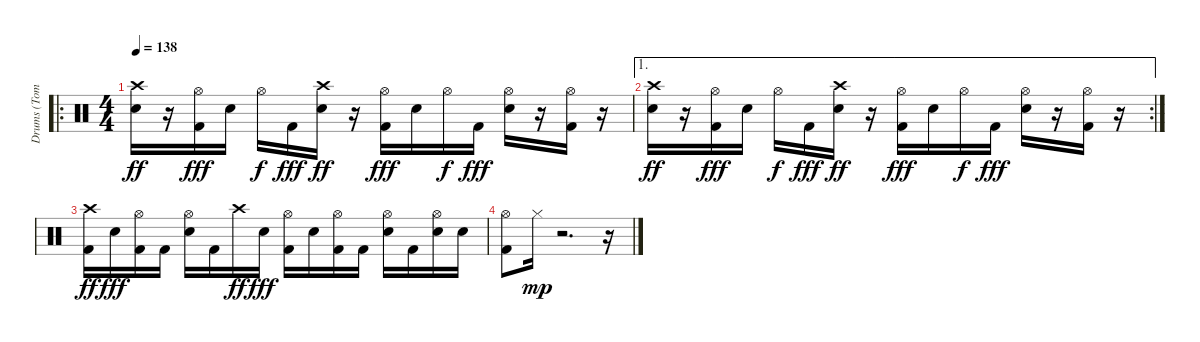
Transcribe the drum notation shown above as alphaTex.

\track ("Drums (Tommy Decker)" "Drums (Tom") {instrument percussion}
\staff {score}
\articulation defaults
\ro
\ts (4 4)
\tempo 138
\clef neutral
\ks c
("Snare (hit) 2" "Crash high (hit)").16{dy ff} r.16 ("Kick (hit) 2" "Hi-Hat (open)").16{dy fff} "Snare (hit) 2".16 "Hi-Hat (open)".16{dy f} "Kick (hit) 2".16{dy fff} ("Snare (hit) 2" "Crash high (hit)").16{dy ff} r.16 ("Kick (hit) 2" "Hi-Hat (open)").16{dy fff} "Snare (hit) 2".16 "Hi-Hat (open)".16{dy f} "Kick (hit) 2".16{dy fff} ("Snare (hit) 2" "Hi-Hat (open)").16 r.16 ("Kick (hit) 2" "Hi-Hat (open)").16 r.16 |
\ae 1
\rc 2
("Snare (hit) 2" "Crash high (hit)").16{dy ff} r.16 ("Kick (hit) 2" "Hi-Hat (open)").16{dy fff} "Snare (hit) 2".16 "Hi-Hat (open)".16{dy f} "Kick (hit) 2".16{dy fff} ("Snare (hit) 2" "Crash high (hit)").16{dy ff} r.16 ("Kick (hit) 2" "Hi-Hat (open)").16{dy fff} "Snare (hit) 2".16 "Hi-Hat (open)".16{dy f} "Kick (hit) 2".16{dy fff} ("Snare (hit) 2" "Hi-Hat (open)").16 r.16 ("Kick (hit) 2" "Hi-Hat (open)").16 r.16 |
("Kick (hit) 2" "Crash high (hit)").16{dy ff} "Snare (hit) 2".16{dy fff} ("Kick (hit) 2" "Hi-Hat (open)").16 "Kick (hit) 2".16 ("Snare (hit) 2" "Hi-Hat (open)").16 "Kick (hit) 2".16 "Crash high (hit)".16{dy ff} "Snare (hit) 2".16{dy fff} ("Kick (hit) 2" "Hi-Hat (open)").16 "Snare (hit) 2".16 ("Kick (hit) 2" "Hi-Hat (open)").16 "Kick (hit) 2".16 ("Snare (hit) 2" "Hi-Hat (open)").16 "Kick (hit) 2".16 ("Snare (hit) 2" "Hi-Hat (open)").16 "Snare (hit) 2".16 |
("Kick (hit) 2" "Hi-Hat (open)").8 "Hi-Hat (closed)".16{dy mp} r.2{d} r.16
